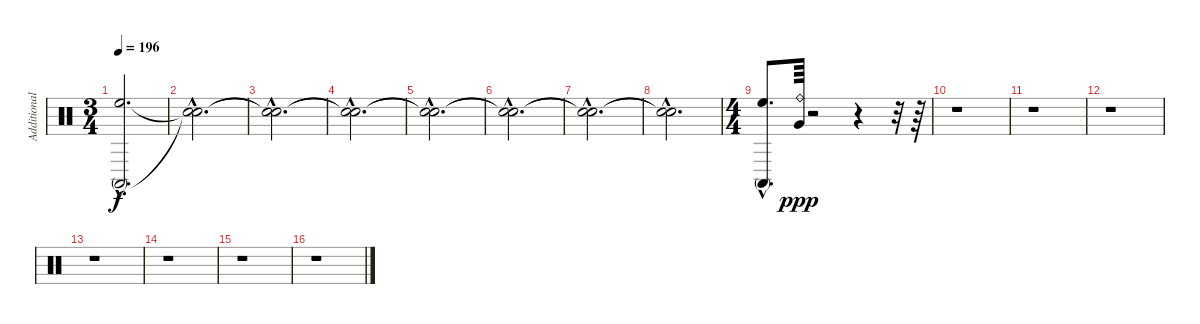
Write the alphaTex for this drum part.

\track ("Additional" "Additional") {instrument percussion}
\staff {score}
\articulation defaults
\ts (3 4)
\tempo 196
\clef neutral
\ks c
("Conga high (mute)"{hac} "High Floor Tom (hit)"{hac}).2{d dy f} |
("Snare (hit)"{hac t} "Snare (hit)"{hac t}).2{d} |
("Snare (hit)"{hac t} "Snare (hit)"{hac t}).2{d} |
("Snare (hit)"{hac t} "Snare (hit)"{hac t}).2{d} |
("Snare (hit)"{hac t} "Snare (hit)"{hac t}).2{d} |
("Snare (hit)"{hac t} "Snare (hit)"{hac t}).2{d} |
("Snare (hit)"{hac t} "Snare (hit)"{hac t}).2{d} |
("Snare (hit)"{hac t} "Snare (hit)"{hac t}).2{d} |
\ts (4 4)
("Conga high (mute)"{hac} "High Floor Tom (hit)"{hac}).8{d} ("Ride (bell)" "Very Low Tom (hit)").64{dy ppp} r.2 r.4 r.32 r.64 |
r.1 |
r.1 |
r.1 |
r.1 |
r.1 |
r.1 |
r.1
